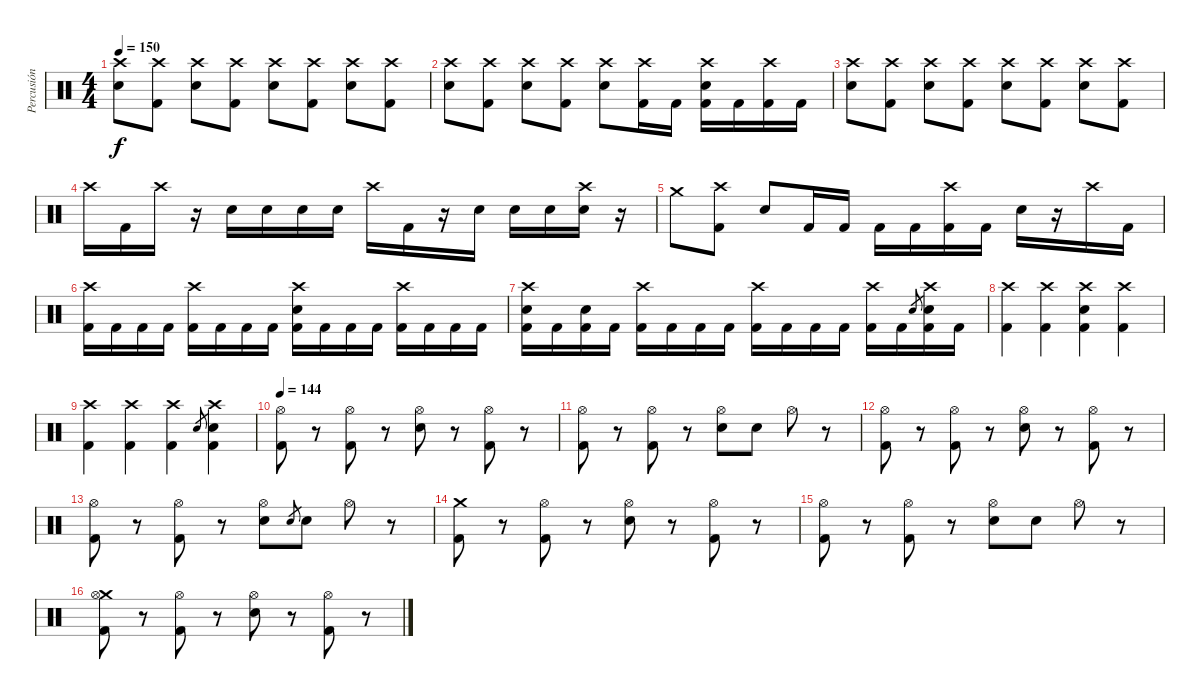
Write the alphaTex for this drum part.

\track ("Percusión" "Percusión") {instrument percussion}
\staff {score}
\articulation defaults
\ts (4 4)
\tempo 150
\clef neutral
\ks c
("Crash high (hit)" "Electric Snare (hit)").8{dy f} ("Crash high (hit)" "Kick (hit) 2").8 ("Crash high (hit)" "Electric Snare (hit)").8 ("Crash high (hit)" "Kick (hit) 2").8 ("Crash high (hit)" "Electric Snare (hit)").8 ("Crash high (hit)" "Kick (hit) 2").8 ("Crash high (hit)" "Electric Snare (hit)").8 ("Crash high (hit)" "Kick (hit) 2").8 |
("Crash high (hit)" "Electric Snare (hit)").8 ("Crash high (hit)" "Kick (hit) 2").8 ("Crash high (hit)" "Electric Snare (hit)").8 ("Crash high (hit)" "Kick (hit) 2").8 ("Crash high (hit)" "Electric Snare (hit)").8 ("Crash high (hit)" "Kick (hit) 2").16 "Kick (hit) 2".16 ("Crash high (hit)" "Electric Snare (hit)" "Kick (hit) 2").16 "Kick (hit) 2".16 ("Crash high (hit)" "Kick (hit) 2").16 "Kick (hit) 2".16 |
("Crash high (hit)" "Electric Snare (hit)").8 ("Crash high (hit)" "Kick (hit) 2").8 ("Crash high (hit)" "Electric Snare (hit)").8 ("Crash high (hit)" "Kick (hit) 2").8 ("Crash high (hit)" "Electric Snare (hit)").8 ("Crash high (hit)" "Kick (hit) 2").8 ("Crash high (hit)" "Electric Snare (hit)").8 ("Crash high (hit)" "Kick (hit) 2").8 |
"Crash high (hit)".16 "Kick (hit) 2".16 "Crash high (hit)".16 r.16 "Electric Snare (hit)".16 "Electric Snare (hit)".16 "Electric Snare (hit)".16 "Electric Snare (hit)".16 "Crash high (hit)".16 "Kick (hit) 2".16 r.16 "Electric Snare (hit)".16 "Electric Snare (hit)".16 "Electric Snare (hit)".16 ("Crash high (hit)" "Electric Snare (hit)").16 r.16 |
"Crash medium (hit)".8 ("Crash high (hit)" "Kick (hit) 2").8 "Electric Snare (hit)".8 "Kick (hit) 2".16 "Kick (hit) 2".16 "Kick (hit) 2".16 "Kick (hit) 2".16 ("Crash high (hit)" "Kick (hit) 2").16 "Kick (hit) 2".16 "Electric Snare (hit)".16 r.16 "Crash high (hit)".16 "Kick (hit) 2".16 |
("Crash high (hit)" "Kick (hit) 2").16 "Kick (hit) 2".16 "Kick (hit) 2".16 "Kick (hit) 2".16 ("Crash high (hit)" "Kick (hit) 2").16 "Kick (hit) 2".16 "Kick (hit) 2".16 "Kick (hit) 2".16 ("Crash high (hit)" "Electric Snare (hit)" "Kick (hit) 2").16 "Kick (hit) 2".16 "Kick (hit) 2".16 "Kick (hit) 2".16 ("Crash high (hit)" "Kick (hit) 2").16 "Kick (hit) 2".16 "Kick (hit) 2".16 "Kick (hit) 2".16 |
("Crash high (hit)" "Electric Snare (hit)" "Kick (hit) 2").16 "Kick (hit) 2".16 ("Electric Snare (hit)" "Kick (hit) 2").16 "Kick (hit) 2".16 ("Crash high (hit)" "Kick (hit) 2").16 "Kick (hit) 2".16 "Kick (hit) 2".16 "Kick (hit) 2".16 ("Crash high (hit)" "Kick (hit) 2").16 "Kick (hit) 2".16 "Kick (hit) 2".16 "Kick (hit) 2".16 ("Crash high (hit)" "Kick (hit) 2").16 "Kick (hit) 2".16 "Electric Snare (hit)".8{gr} ("Crash high (hit)" "Electric Snare (hit)" "Kick (hit) 2").16 "Kick (hit) 2".16 |
("Crash high (hit)" "Kick (hit) 2").4 ("Crash high (hit)" "Kick (hit) 2").4 ("Crash high (hit)" "Electric Snare (hit)" "Kick (hit) 2").4 ("Crash high (hit)" "Kick (hit) 2").4 |
("Crash high (hit)" "Kick (hit) 2").4 ("Crash high (hit)" "Kick (hit) 2").4 ("Crash high (hit)" "Kick (hit) 2").4 "Electric Snare (hit)".8{gr} ("Crash high (hit)" "Electric Snare (hit)" "Kick (hit) 2").4 |
\tempo 144
("Hi-Hat (open)" "Kick (hit) 2").8 r.8 ("Hi-Hat (open)" "Kick (hit) 2").8 r.8 ("Hi-Hat (open)" "Electric Snare (hit)").8 r.8 ("Hi-Hat (open)" "Kick (hit) 2").8 r.8 |
("Hi-Hat (open)" "Kick (hit) 2").8 r.8 ("Hi-Hat (open)" "Kick (hit) 2").8 r.8 ("Hi-Hat (open)" "Electric Snare (hit)").8 "Electric Snare (hit)".8 "Hi-Hat (open)".8 r.8 |
("Hi-Hat (open)" "Kick (hit) 2").8 r.8 ("Hi-Hat (open)" "Kick (hit) 2").8 r.8 ("Hi-Hat (open)" "Electric Snare (hit)").8 r.8 ("Hi-Hat (open)" "Kick (hit) 2").8 r.8 |
("Hi-Hat (open)" "Kick (hit) 2").8 r.8 ("Hi-Hat (open)" "Kick (hit) 2").8 r.8 ("Hi-Hat (open)" "Electric Snare (hit)").8 "Electric Snare (hit)".8{gr} "Electric Snare (hit)".8 "Hi-Hat (open)".8 r.8 |
("Crash medium (hit)" "Kick (hit) 2").8 r.8 ("Hi-Hat (open)" "Kick (hit) 2").8 r.8 ("Hi-Hat (open)" "Electric Snare (hit)").8 r.8 ("Hi-Hat (open)" "Kick (hit) 2").8 r.8 |
("Hi-Hat (open)" "Kick (hit) 2").8 r.8 ("Hi-Hat (open)" "Kick (hit) 2").8 r.8 ("Hi-Hat (open)" "Electric Snare (hit)").8 "Electric Snare (hit)".8 "Hi-Hat (open)".8 r.8 |
("Crash medium (hit)" "Hi-Hat (open)" "Kick (hit) 2").8 r.8 ("Hi-Hat (open)" "Kick (hit) 2").8 r.8 ("Hi-Hat (open)" "Electric Snare (hit)").8 r.8 ("Hi-Hat (open)" "Kick (hit) 2").8 r.8
